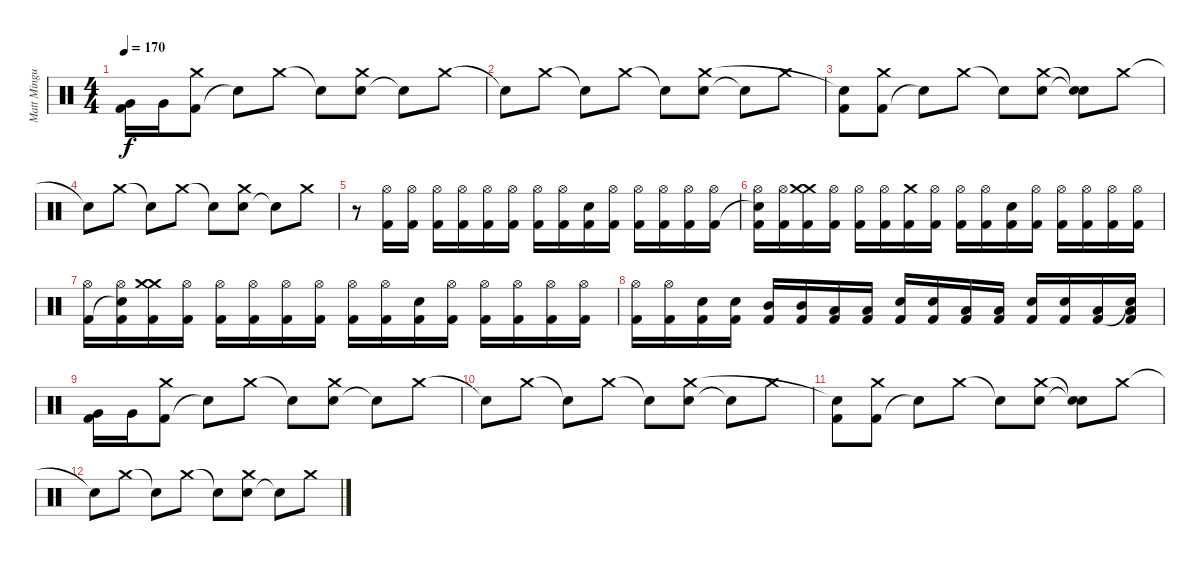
\track ("Matt Mingus" "Matt Mingu") {instrument percussion}
\staff {score}
\articulation defaults
\ts (4 4)
\tempo 170
\clef neutral
\ks c
("Very Low Tom (hit)" "Kick (hit) 2").16{dy f} "Very Low Tom (hit)".16 ("Kick (hit) 2" "Crash medium (hit)").8 "Snare (hit)"{t}.8 "Crash medium (hit)".8 "Snare (hit)"{t}.8 ("Electric Snare (hit)" "Crash medium (hit)").8 "Snare (hit)"{t}.8 "Crash medium (hit)".8 |
"Snare (hit)"{t}.8 "Crash medium (hit)".8 "Snare (hit)"{t}.8 "Crash medium (hit)".8 "Snare (hit)"{t}.8 ("Electric Snare (hit)" "Crash medium (hit)").8 "Snare (hit)"{t}.8 "Crash medium (hit)".8 |
("Kick (hit) 2" "Snare (hit)"{t}).8 ("Kick (hit) 2" "Crash medium (hit)").8 "Snare (hit)"{t}.8 "Crash medium (hit)".8 "Snare (hit)"{t}.8 ("Electric Snare (hit)" "Crash medium (hit)").8 ("Snare (hit)"{t} "Snare (hit)"{t}).8 "Crash medium (hit)".8 |
"Snare (hit)"{t}.8 "Crash medium (hit)".8 "Snare (hit)"{t}.8 "Crash medium (hit)".8 "Snare (hit)"{t}.8 ("Electric Snare (hit)" "Crash medium (hit)").8 "Snare (hit)"{t}.8 "Crash medium (hit)".8 |
r.8 ("Hi-Hat (open)" "Kick (hit) 2").16 ("Hi-Hat (open)" "Kick (hit) 2").16 ("Hi-Hat (open)" "Kick (hit) 2").16 ("Hi-Hat (open)" "Kick (hit) 2").16 ("Hi-Hat (open)" "Kick (hit) 2").16 ("Hi-Hat (open)" "Kick (hit) 2").16 ("Hi-Hat (open)" "Kick (hit) 2").16 ("Hi-Hat (open)" "Kick (hit) 2").16 ("Electric Snare (hit)" "Kick (hit) 2").16 ("Hi-Hat (open)" "Kick (hit) 2").16 ("Hi-Hat (open)" "Kick (hit) 2").16 ("Hi-Hat (open)" "Kick (hit) 2").16 ("Hi-Hat (open)" "Kick (hit) 2").16 ("Hi-Hat (open)" "Kick (hit) 2").16 |
("Hi-Hat (open)" "Snare (hit)"{t} "Kick (hit) 2").16 ("Hi-Hat (open)" "Kick (hit) 2").16 ("Crash medium (hit)" "Crash medium (hit)" "Kick (hit) 2").16 ("Hi-Hat (open)" "Kick (hit) 2").16 ("Hi-Hat (open)" "Kick (hit) 2").16 ("Hi-Hat (open)" "Kick (hit) 2").16 ("Crash medium (hit)" "Kick (hit) 2").16 ("Hi-Hat (open)" "Kick (hit) 2").16 ("Hi-Hat (open)" "Kick (hit) 2").16 ("Hi-Hat (open)" "Kick (hit) 2").16 ("Electric Snare (hit)" "Kick (hit) 2").16 ("Hi-Hat (open)" "Kick (hit) 2").16 ("Hi-Hat (open)" "Kick (hit) 2").16 ("Hi-Hat (open)" "Kick (hit) 2").16 ("Hi-Hat (open)" "Kick (hit) 2").16 ("Hi-Hat (open)" "Kick (hit) 2").16 |
("Hi-Hat (open)" "Kick (hit) 2").16 ("Hi-Hat (open)" "Snare (hit)"{t} "Kick (hit) 2").16 ("Crash medium (hit)" "Crash medium (hit)" "Kick (hit) 2").16 ("Hi-Hat (open)" "Kick (hit) 2").16 ("Hi-Hat (open)" "Kick (hit) 2").16 ("Hi-Hat (open)" "Kick (hit) 2").16 ("Hi-Hat (open)" "Kick (hit) 2").16 ("Hi-Hat (open)" "Kick (hit) 2").16 ("Hi-Hat (open)" "Kick (hit) 2").16 ("Hi-Hat (open)" "Kick (hit) 2").16 ("Electric Snare (hit)" "Kick (hit) 2").16 ("Hi-Hat (open)" "Kick (hit) 2").16 ("Hi-Hat (open)" "Kick (hit) 2").16 ("Hi-Hat (open)" "Kick (hit) 2").16 ("Hi-Hat (open)" "Kick (hit) 2").16 ("Hi-Hat (open)" "Kick (hit) 2").16 |
("Hi-Hat (open)" "Kick (hit) 2").16 ("Hi-Hat (open)" "Kick (hit) 2").16 ("Electric Snare (hit)" "Kick (hit) 2").16 ("Electric Snare (hit)" "Kick (hit) 2").16 ("Mid Tom (hit)" "Kick (hit) 2").16 ("Mid Tom (hit)" "Kick (hit) 2").16 ("Low Tom (hit)" "Kick (hit) 2").16 ("Low Tom (hit)" "Kick (hit) 2").16 ("Electric Snare (hit)" "Kick (hit) 2").16 ("Electric Snare (hit)" "Kick (hit) 2").16 ("Low Tom (hit)" "Kick (hit) 2").16 ("Low Tom (hit)" "Kick (hit) 2").16 ("Electric Snare (hit)" "Kick (hit) 2").16 ("Electric Snare (hit)" "Kick (hit) 2").16 ("Low Tom (hit)" "Kick (hit) 2").16 ("Low Tom (hit)" "Snare (hit)"{t} "Kick (hit) 2").16 |
("Very Low Tom (hit)" "Kick (hit) 2").16 "Very Low Tom (hit)".16 ("Kick (hit) 2" "Crash medium (hit)").8 "Snare (hit)"{t}.8 "Crash medium (hit)".8 "Snare (hit)"{t}.8 ("Electric Snare (hit)" "Crash medium (hit)").8 "Snare (hit)"{t}.8 "Crash medium (hit)".8 |
"Snare (hit)"{t}.8 "Crash medium (hit)".8 "Snare (hit)"{t}.8 "Crash medium (hit)".8 "Snare (hit)"{t}.8 ("Electric Snare (hit)" "Crash medium (hit)").8 "Snare (hit)"{t}.8 "Crash medium (hit)".8 |
("Kick (hit) 2" "Snare (hit)"{t}).8 ("Kick (hit) 2" "Crash medium (hit)").8 "Snare (hit)"{t}.8 "Crash medium (hit)".8 "Snare (hit)"{t}.8 ("Electric Snare (hit)" "Crash medium (hit)").8 ("Snare (hit)"{t} "Snare (hit)"{t}).8 "Crash medium (hit)".8 |
"Snare (hit)"{t}.8 "Crash medium (hit)".8 "Snare (hit)"{t}.8 "Crash medium (hit)".8 "Snare (hit)"{t}.8 ("Electric Snare (hit)" "Crash medium (hit)").8 "Snare (hit)"{t}.8 "Crash medium (hit)".8
